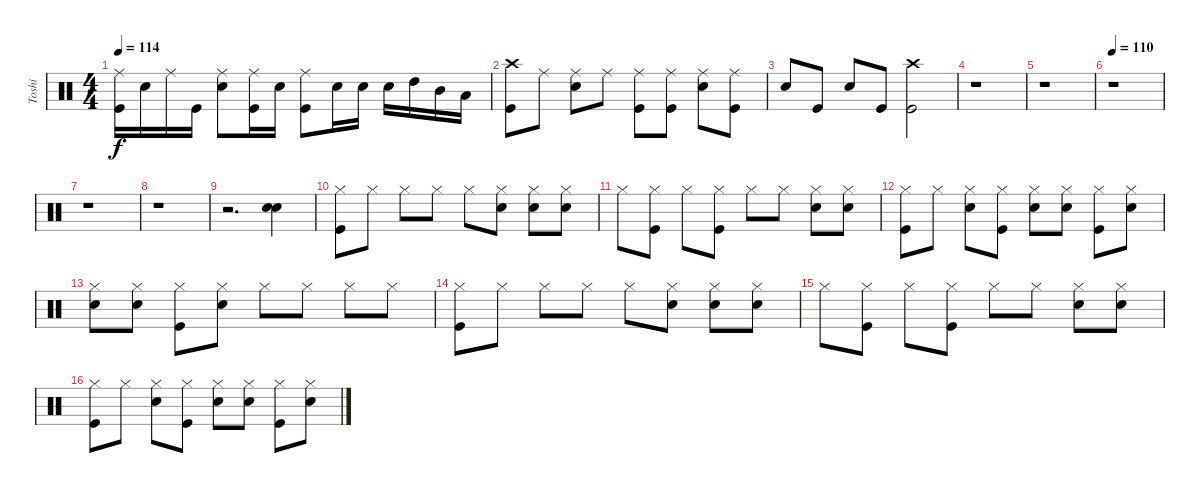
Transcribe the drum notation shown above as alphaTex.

\track ("Toshi" "Toshi") {instrument percussion}
\staff {score}
\articulation defaults
\ts (4 4)
\tempo 114
\clef neutral
\ks c
("Ride (middle)" "Kick (hit)").16{dy f} "Snare (hit) 2".16 "Ride (middle)".16 "Kick (hit)".16 ("Ride (middle)" "Snare (hit) 2").8 ("Ride (middle)" "Kick (hit)").16 "Snare (hit) 2".16 ("Ride (middle)" "Kick (hit)").8 "Snare (hit) 2".16 "Snare (hit) 2".16 "Snare (hit) 2".16 "High Tom (hit)".16 "Mid Tom (hit)".16 "Low Tom (hit)".16 |
("Crash high (hit)" "Kick (hit)").8 "Ride (middle)".8 ("Ride (middle)" "Snare (hit) 2").8 "Ride (middle)".8 ("Ride (middle)" "Kick (hit)").8 ("Ride (middle)" "Kick (hit)").8 ("Ride (middle)" "Snare (hit) 2").8 ("Ride (middle)" "Kick (hit)").8 |
"Snare (hit) 2".8 "Kick (hit)".8 "Snare (hit) 2".8 "Kick (hit)".8 ("Crash high (hit)" "Kick (hit)").2 |
r.1 |
r.1 |
\tempo 110
r.1 |
r.1 |
r.1 |
r.2{d} ("Snare (hit) 2" "Snare (hit) 2").4 |
("Hi-Hat (closed)" "Kick (hit)").8 "Hi-Hat (closed)".8 "Hi-Hat (closed)".8 "Hi-Hat (closed)".8 "Hi-Hat (closed)".8 ("Hi-Hat (closed)" "Snare (hit) 2").8 ("Hi-Hat (closed)" "Snare (hit) 2").8 ("Hi-Hat (closed)" "Snare (hit) 2").8 |
"Hi-Hat (closed)".8 ("Hi-Hat (closed)" "Kick (hit)").8 "Hi-Hat (closed)".8 ("Hi-Hat (closed)" "Kick (hit)").8 "Hi-Hat (closed)".8 "Hi-Hat (closed)".8 ("Hi-Hat (closed)" "Snare (hit) 2").8 ("Hi-Hat (closed)" "Snare (hit) 2").8 |
("Hi-Hat (closed)" "Kick (hit)").8 "Hi-Hat (closed)".8 ("Hi-Hat (closed)" "Snare (hit) 2").8 ("Hi-Hat (closed)" "Kick (hit)").8 ("Hi-Hat (closed)" "Snare (hit) 2").8 ("Hi-Hat (closed)" "Snare (hit) 2").8 ("Hi-Hat (closed)" "Kick (hit)").8 ("Hi-Hat (closed)" "Snare (hit) 2").8 |
("Hi-Hat (closed)" "Snare (hit) 2").8 ("Hi-Hat (closed)" "Snare (hit) 2").8 ("Hi-Hat (closed)" "Kick (hit)").8 ("Hi-Hat (closed)" "Snare (hit) 2").8 "Hi-Hat (closed)".8 "Hi-Hat (closed)".8 "Hi-Hat (closed)".8 "Hi-Hat (closed)".8 |
("Hi-Hat (closed)" "Kick (hit)").8{volume 12} "Hi-Hat (closed)".8 "Hi-Hat (closed)".8 "Hi-Hat (closed)".8 "Hi-Hat (closed)".8 ("Hi-Hat (closed)" "Snare (hit) 2").8 ("Hi-Hat (closed)" "Snare (hit) 2").8 ("Hi-Hat (closed)" "Snare (hit) 2").8 |
"Hi-Hat (closed)".8{volume 8} ("Hi-Hat (closed)" "Kick (hit)").8 "Hi-Hat (closed)".8 ("Hi-Hat (closed)" "Kick (hit)").8 "Hi-Hat (closed)".8 "Hi-Hat (closed)".8 ("Hi-Hat (closed)" "Snare (hit) 2").8 ("Hi-Hat (closed)" "Snare (hit) 2").8 |
("Hi-Hat (closed)" "Kick (hit)").8{volume 4} "Hi-Hat (closed)".8 ("Hi-Hat (closed)" "Snare (hit) 2").8 ("Hi-Hat (closed)" "Kick (hit)").8 ("Hi-Hat (closed)" "Snare (hit) 2").8 ("Hi-Hat (closed)" "Snare (hit) 2").8 ("Hi-Hat (closed)" "Kick (hit)").8 ("Hi-Hat (closed)" "Snare (hit) 2").8
